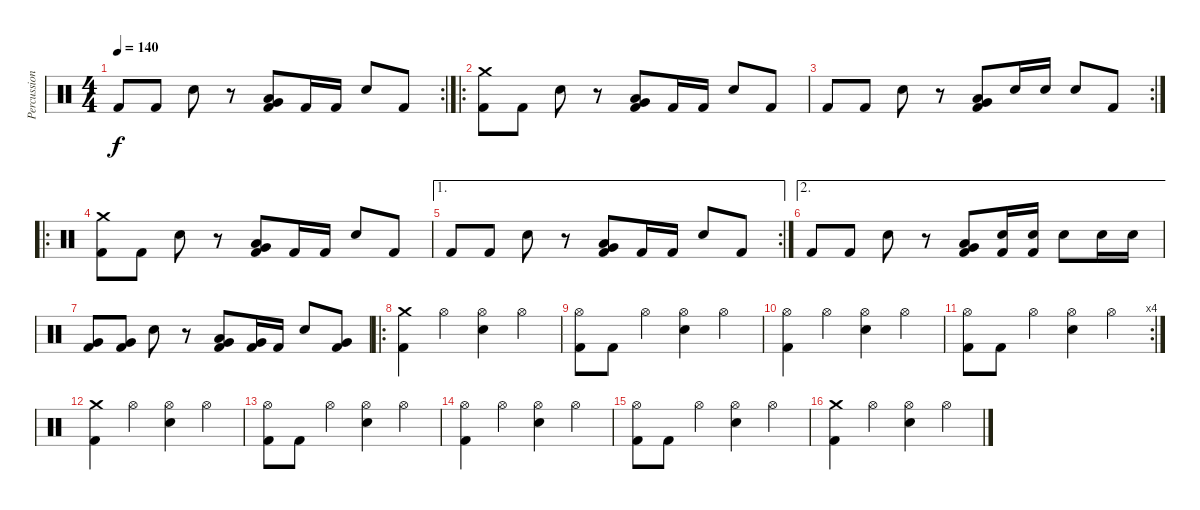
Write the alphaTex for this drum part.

\track ("Percussion" "Percussion") {instrument percussion}
\staff {score}
\articulation defaults
\rc 2
\ts (4 4)
\tempo 140
\clef neutral
\ks c "Kick (hit) 2".8{dy f} "Kick (hit) 2".8 "Electric Snare (hit)".8
r.8 ("Low Floor Tom (hit)" "Very Low Tom (hit)" "Kick (hit) 2").8 "Kick (hit) 2".16 "Kick (hit) 2".16 "Electric Snare (hit)".8 "Kick (hit) 2".8 |
\ro
("Crash medium (hit)" "Kick (hit) 2").8 "Kick (hit) 2".8 "Electric Snare (hit)".8 r.8 ("Low Floor Tom (hit)" "Very Low Tom (hit)" "Kick (hit) 2").8 "Kick (hit) 2".16 "Kick (hit) 2".16 "Electric Snare (hit)".8 "Kick (hit) 2".8 |
\rc 2 "Kick (hit) 2".8 "Kick (hit) 2".8 "Electric Snare (hit)".8
r.8 ("Low Floor Tom (hit)" "Very Low Tom (hit)" "Kick (hit) 2").8 "Electric Snare (hit)".16 "Electric Snare (hit)".16 "Electric Snare (hit)".8 "Kick (hit) 2".8 |
\ro
("Crash medium (hit)" "Kick (hit) 2").8 "Kick (hit) 2".8 "Electric Snare (hit)".8 r.8 ("Low Floor Tom (hit)" "Very Low Tom (hit)" "Kick (hit) 2").8 "Kick (hit) 2".16 "Kick (hit) 2".16 "Electric Snare (hit)".8 "Kick (hit) 2".8 |
\ae 1
\rc 2 "Kick (hit) 2".8 "Kick (hit) 2".8 "Electric Snare (hit)".8
r.8 ("Low Floor Tom (hit)" "Very Low Tom (hit)" "Kick (hit) 2").8 "Kick (hit) 2".16 "Kick (hit) 2".16 "Electric Snare (hit)".8 "Kick (hit) 2".8 |
\ae 2 "Kick (hit) 2".8 "Kick (hit) 2".8 "Electric Snare (hit)".8
r.8 ("Low Floor Tom (hit)" "Very Low Tom (hit)" "Kick (hit) 2").8 ("Electric Snare (hit)" "Kick (hit) 2").16 ("Electric Snare (hit)" "Kick (hit) 2").16 "Electric Snare (hit)".8 "Electric Snare (hit)".16 "Electric Snare (hit)".16 |
("Very Low Tom (hit)" "Kick (hit) 2").8 ("Very Low Tom (hit)" "Kick (hit) 2").8 "Electric Snare (hit)".8 r.8 ("Low Floor Tom (hit)" "Very Low Tom (hit)" "Kick (hit) 2").8 ("Very Low Tom (hit)" "Kick (hit) 2").16 "Kick (hit) 2".16 "Electric Snare (hit)".8 ("Very Low Tom (hit)" "Kick (hit) 2").8 |
\ro
("Crash medium (hit)" "Kick (hit) 2").4 "Hi-Hat (open)".4 ("Hi-Hat (open)" "Electric Snare (hit)").4 "Hi-Hat (open)".4 |
("Hi-Hat (open)" "Kick (hit) 2").8 "Kick (hit) 2".8 "Hi-Hat (open)".4 ("Hi-Hat (open)" "Electric Snare (hit)").4 "Hi-Hat (open)".4 |
("Hi-Hat (open)" "Kick (hit) 2").4 "Hi-Hat (open)".4 ("Hi-Hat (open)" "Electric Snare (hit)").4 "Hi-Hat (open)".4 |
\rc 4
("Hi-Hat (open)" "Kick (hit) 2").8 "Kick (hit) 2".8 "Hi-Hat (open)".4 ("Hi-Hat (open)" "Electric Snare (hit)").4 "Hi-Hat (open)".4 |
("Crash medium (hit)" "Kick (hit) 2").4 "Hi-Hat (open)".4 ("Hi-Hat (open)" "Electric Snare (hit)").4 "Hi-Hat (open)".4 |
("Hi-Hat (open)" "Kick (hit) 2").8 "Kick (hit) 2".8 "Hi-Hat (open)".4 ("Hi-Hat (open)" "Electric Snare (hit)").4 "Hi-Hat (open)".4 |
("Hi-Hat (open)" "Kick (hit) 2").4 "Hi-Hat (open)".4 ("Hi-Hat (open)" "Electric Snare (hit)").4 "Hi-Hat (open)".4 |
("Hi-Hat (open)" "Kick (hit) 2").8 "Kick (hit) 2".8 "Hi-Hat (open)".4 ("Hi-Hat (open)" "Electric Snare (hit)").4 "Hi-Hat (open)".4 |
("Crash medium (hit)" "Kick (hit) 2").4 "Hi-Hat (open)".4 ("Hi-Hat (open)" "Electric Snare (hit)").4 "Hi-Hat (open)".4
